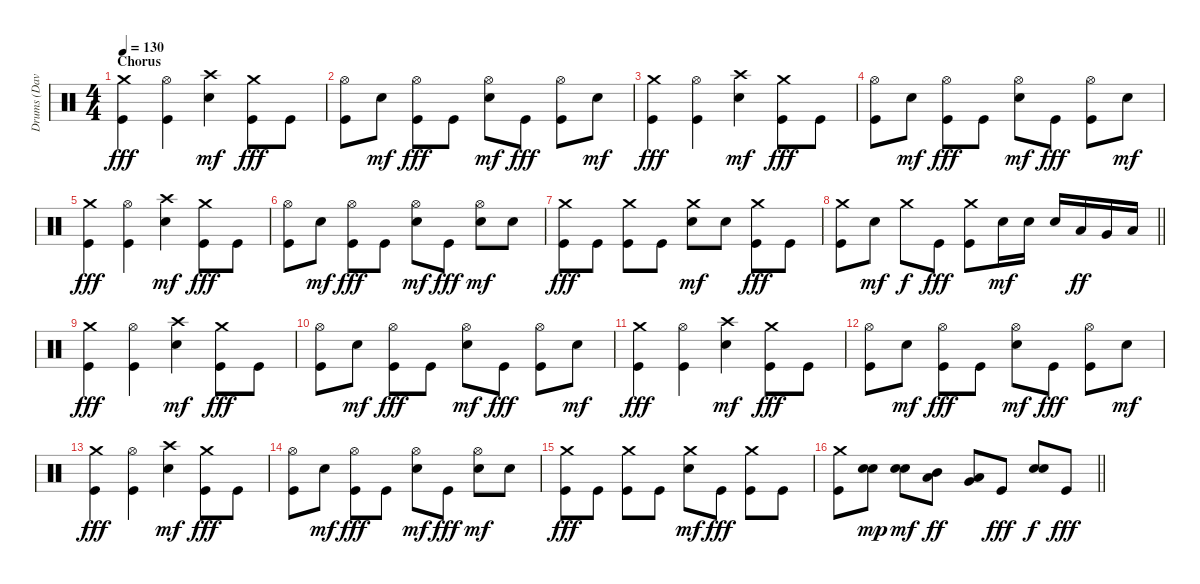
\track ("Drums (Dave Chavarri)" "Drums (Dav") {instrument percussion}
\staff {score}
\articulation defaults
\ts (4 4)
\section ("" "Chorus")
\tempo 130
\clef neutral
\ks c
("Crash medium (hit)" "Kick (hit)").4{dy fff} ("Hi-Hat (open)" "Kick (hit)").4 ("Crash high (hit)" "Electric Snare (hit)").4{dy mf} ("Crash medium (hit)" "Kick (hit)").8{dy fff} "Kick (hit)".8 |
("Hi-Hat (open)" "Kick (hit)").8 "Electric Snare (hit)".8{dy mf} ("Hi-Hat (open)" "Kick (hit)").8{dy fff} "Kick (hit)".8 ("Hi-Hat (open)" "Electric Snare (hit)").8{dy mf} "Kick (hit)".8{dy fff} ("Hi-Hat (open)" "Kick (hit)").8 "Electric Snare (hit)".8{dy mf} |
("Crash medium (hit)" "Kick (hit)").4{dy fff} ("Hi-Hat (open)" "Kick (hit)").4 ("Crash high (hit)" "Electric Snare (hit)").4{dy mf} ("Crash medium (hit)" "Kick (hit)").8{dy fff} "Kick (hit)".8 |
("Hi-Hat (open)" "Kick (hit)").8 "Electric Snare (hit)".8{dy mf} ("Hi-Hat (open)" "Kick (hit)").8{dy fff} "Kick (hit)".8 ("Hi-Hat (open)" "Electric Snare (hit)").8{dy mf} "Kick (hit)".8{dy fff} ("Hi-Hat (open)" "Kick (hit)").8 "Electric Snare (hit)".8{dy mf} |
("Crash medium (hit)" "Kick (hit)").4{dy fff} ("Hi-Hat (open)" "Kick (hit)").4 ("Crash high (hit)" "Electric Snare (hit)").4{dy mf} ("Crash medium (hit)" "Kick (hit)").8{dy fff} "Kick (hit)".8 |
("Hi-Hat (open)" "Kick (hit)").8 "Electric Snare (hit)".8{dy mf} ("Hi-Hat (open)" "Kick (hit)").8{dy fff} "Kick (hit)".8 ("Hi-Hat (open)" "Electric Snare (hit)").8{dy mf} "Kick (hit)".8{dy fff} ("Hi-Hat (open)" "Electric Snare (hit)").8{dy mf} "Electric Snare (hit)".8 |
("Crash medium (hit)" "Kick (hit)").8{dy fff} "Kick (hit)".8 ("Crash medium (hit)" "Kick (hit)").8 "Kick (hit)".8 ("Crash medium (hit)" "Electric Snare (hit)").8{dy mf} "Electric Snare (hit)".8 ("Crash medium (hit)" "Kick (hit)").8{dy fff} "Kick (hit)".8 |
\barLineRight lightlight
("Crash medium (hit)" "Kick (hit)").8 "Electric Snare (hit)".8{dy mf} "Crash medium (hit)".8{dy f} "Kick (hit)".8{dy fff} ("Crash medium (hit)" "Kick (hit)").8 "Electric Snare (hit)".16{dy mf} "Electric Snare (hit)".16 "Electric Snare (hit)".16 "Low Tom (hit)".16{dy ff} "Very Low Tom (hit)".16 "Low Floor Tom (hit)".16 |
("Crash medium (hit)" "Kick (hit)").4{dy fff} ("Hi-Hat (open)" "Kick (hit)").4 ("Crash high (hit)" "Electric Snare (hit)").4{dy mf} ("Crash medium (hit)" "Kick (hit)").8{dy fff} "Kick (hit)".8 |
("Hi-Hat (open)" "Kick (hit)").8 "Electric Snare (hit)".8{dy mf} ("Hi-Hat (open)" "Kick (hit)").8{dy fff} "Kick (hit)".8 ("Hi-Hat (open)" "Electric Snare (hit)").8{dy mf} "Kick (hit)".8{dy fff} ("Hi-Hat (open)" "Kick (hit)").8 "Electric Snare (hit)".8{dy mf} |
("Crash medium (hit)" "Kick (hit)").4{dy fff} ("Hi-Hat (open)" "Kick (hit)").4 ("Crash high (hit)" "Electric Snare (hit)").4{dy mf} ("Crash medium (hit)" "Kick (hit)").8{dy fff} "Kick (hit)".8 |
("Hi-Hat (open)" "Kick (hit)").8 "Electric Snare (hit)".8{dy mf} ("Hi-Hat (open)" "Kick (hit)").8{dy fff} "Kick (hit)".8 ("Hi-Hat (open)" "Electric Snare (hit)").8{dy mf} "Kick (hit)".8{dy fff} ("Hi-Hat (open)" "Kick (hit)").8 "Electric Snare (hit)".8{dy mf} |
("Crash medium (hit)" "Kick (hit)").4{dy fff} ("Hi-Hat (open)" "Kick (hit)").4 ("Crash high (hit)" "Electric Snare (hit)").4{dy mf} ("Crash medium (hit)" "Kick (hit)").8{dy fff} "Kick (hit)".8 |
("Hi-Hat (open)" "Kick (hit)").8 "Electric Snare (hit)".8{dy mf} ("Hi-Hat (open)" "Kick (hit)").8{dy fff} "Kick (hit)".8 ("Hi-Hat (open)" "Electric Snare (hit)").8{dy mf} "Kick (hit)".8{dy fff} ("Hi-Hat (open)" "Electric Snare (hit)").8{dy mf} "Electric Snare (hit)".8 |
("Crash medium (hit)" "Kick (hit)").8{dy fff} "Kick (hit)".8 ("Crash medium (hit)" "Kick (hit)").8 "Kick (hit)".8 ("Crash medium (hit)" "Electric Snare (hit)").8{dy mf} "Kick (hit)".8{dy fff} ("Crash medium (hit)" "Kick (hit)").8 "Kick (hit)".8 |
\barLineRight lightlight
("Crash medium (hit)" "Kick (hit)").8 ("Electric Snare (hit)" "Electric Snare (hit)").8{bd 240 dy mp} ("Electric Snare (hit)" "Electric Snare (hit)").8{bd 240 dy mf} ("Mid Tom (hit)" "Low Tom (hit)").8{bd 60 dy ff} ("Low Tom (hit)" "Very Low Tom (hit)").8{bd 60} "Kick (hit)".8{dy fff} ("Electric Snare (hit)" "Electric Snare (hit)").8{bd 240 dy f} "Kick (hit)".8{dy fff}
